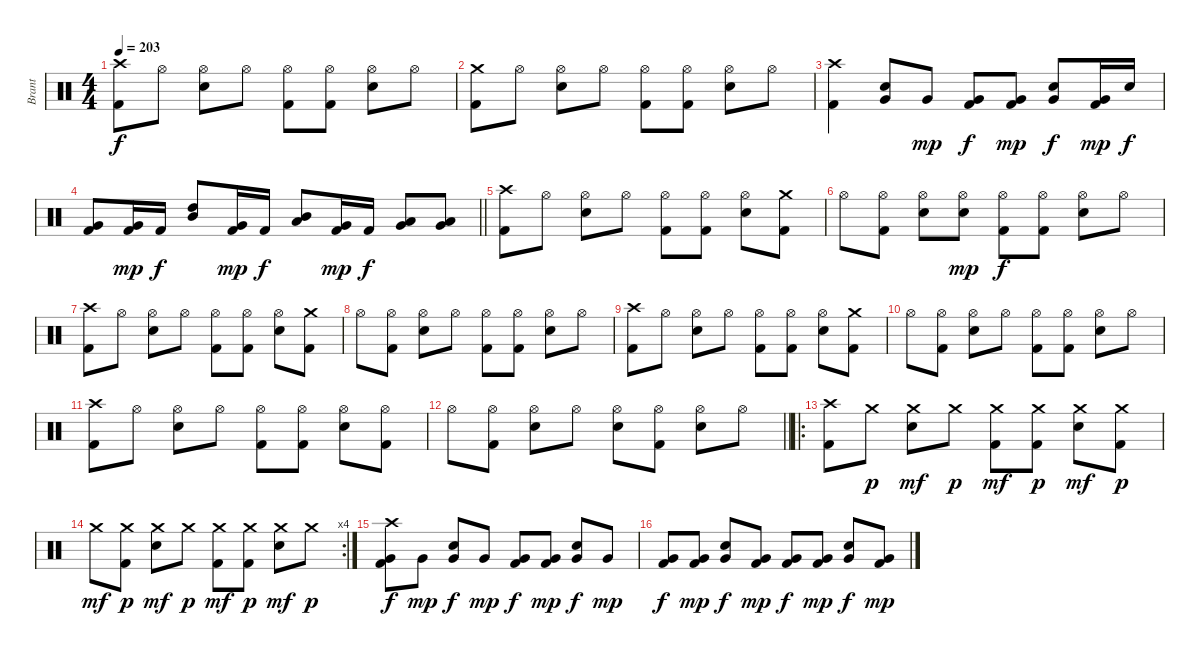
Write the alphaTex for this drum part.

\track ("Brant" "Brant") {instrument percussion}
\staff {score}
\articulation defaults
\ts (4 4)
\tempo 203
\clef neutral
\ks c
("Crash high (hit)" "Kick (hit) 2").8{dy f} "Hi-Hat (open)".8 ("Hi-Hat (open)" "Electric Snare (hit)").8 "Hi-Hat (open)".8 ("Hi-Hat (open)" "Kick (hit) 2").8 ("Hi-Hat (open)" "Kick (hit) 2").8 ("Hi-Hat (open)" "Electric Snare (hit)").8 "Hi-Hat (open)".8 |
("Crash medium (hit)" "Kick (hit) 2").8 "Hi-Hat (open)".8 ("Hi-Hat (open)" "Electric Snare (hit)").8 "Hi-Hat (open)".8 ("Hi-Hat (open)" "Kick (hit) 2").8 ("Hi-Hat (open)" "Kick (hit) 2").8 ("Hi-Hat (open)" "Electric Snare (hit)").8 "Hi-Hat (open)".8 |
("Crash high (hit)" "Kick (hit) 2").4 ("Electric Snare (hit)" "Very Low Tom (hit)").8 "Very Low Tom (hit)".8{dy mp} ("Very Low Tom (hit)" "Kick (hit) 2").8{dy f} ("Very Low Tom (hit)" "Kick (hit) 2").8{dy mp} ("Electric Snare (hit)" "Very Low Tom (hit)").8{dy f} ("Very Low Tom (hit)" "Kick (hit) 2").16{dy mp} "Electric Snare (hit)".16{dy f} |
\barLineRight lightlight
("Very Low Tom (hit)" "Kick (hit) 2").8 ("Very Low Tom (hit)" "Kick (hit) 2").16{dy mp} "Kick (hit) 2".16{dy f} ("High Tom (hit)" "Mid Tom (hit)").8 ("Very Low Tom (hit)" "Kick (hit) 2").16{dy mp} "Kick (hit) 2".16{dy f} ("Mid Tom (hit)" "Low Tom (hit)").8 ("Very Low Tom (hit)" "Kick (hit) 2").16{dy mp} "Kick (hit) 2".16{dy f} ("Low Tom (hit)" "Very Low Tom (hit)").8 ("Very Low Tom (hit)" "Low Floor Tom (hit)").8 |
\section ("" "")
("Crash high (hit)" "Kick (hit) 2").8 "Hi-Hat (open)".8 ("Hi-Hat (open)" "Electric Snare (hit)").8 "Hi-Hat (open)".8 ("Hi-Hat (open)" "Kick (hit) 2").8 ("Hi-Hat (open)" "Kick (hit) 2").8 ("Hi-Hat (open)" "Electric Snare (hit)").8 ("Crash medium (hit)" "Kick (hit) 2").8 |
"Hi-Hat (open)".8 ("Hi-Hat (open)" "Kick (hit) 2").8 ("Hi-Hat (open)" "Electric Snare (hit)").8 ("Hi-Hat (open)" "Electric Snare (hit)").8{dy mp} ("Hi-Hat (open)" "Kick (hit) 2").8{dy f} ("Hi-Hat (open)" "Kick (hit) 2").8 ("Hi-Hat (open)" "Electric Snare (hit)").8 "Hi-Hat (open)".8 |
("Crash high (hit)" "Kick (hit) 2").8 "Hi-Hat (open)".8 ("Hi-Hat (open)" "Electric Snare (hit)").8 "Hi-Hat (open)".8 ("Hi-Hat (open)" "Kick (hit) 2").8 ("Hi-Hat (open)" "Kick (hit) 2").8 ("Hi-Hat (open)" "Electric Snare (hit)").8 ("Crash medium (hit)" "Kick (hit) 2").8 |
"Hi-Hat (open)".8 ("Hi-Hat (open)" "Kick (hit) 2").8 ("Hi-Hat (open)" "Electric Snare (hit)").8 "Hi-Hat (open)".8 ("Hi-Hat (open)" "Kick (hit) 2").8 ("Hi-Hat (open)" "Kick (hit) 2").8 ("Hi-Hat (open)" "Electric Snare (hit)").8 "Hi-Hat (open)".8 |
("Crash high (hit)" "Kick (hit) 2").8 "Hi-Hat (open)".8 ("Hi-Hat (open)" "Electric Snare (hit)").8 "Hi-Hat (open)".8 ("Hi-Hat (open)" "Kick (hit) 2").8 ("Hi-Hat (open)" "Kick (hit) 2").8 ("Hi-Hat (open)" "Electric Snare (hit)").8 ("Crash medium (hit)" "Kick (hit) 2").8 |
"Hi-Hat (open)".8 ("Hi-Hat (open)" "Kick (hit) 2").8 ("Hi-Hat (open)" "Electric Snare (hit)").8 "Hi-Hat (open)".8 ("Hi-Hat (open)" "Kick (hit) 2").8 ("Hi-Hat (open)" "Kick (hit) 2").8 ("Hi-Hat (open)" "Electric Snare (hit)").8 "Hi-Hat (open)".8 |
("Crash high (hit)" "Kick (hit) 2").8 "Hi-Hat (open)".8 ("Hi-Hat (open)" "Electric Snare (hit)").8 "Hi-Hat (open)".8 ("Hi-Hat (open)" "Kick (hit) 2").8 ("Hi-Hat (open)" "Kick (hit) 2").8 ("Hi-Hat (open)" "Electric Snare (hit)").8 ("Hi-Hat (open)" "Kick (hit) 2").8 |
\barLineRight lightlight "Hi-Hat (open)".8
("Hi-Hat (open)" "Kick (hit) 2").8 ("Hi-Hat (open)" "Electric Snare (hit)").8 "Hi-Hat (open)".8 ("Hi-Hat (open)" "Electric Snare (hit)").8 ("Hi-Hat (open)" "Kick (hit) 2").8 ("Hi-Hat (open)" "Electric Snare (hit)").8 "Hi-Hat (open)".8 |
\ro
\section ("" "")
("Crash high (hit)" "Kick (hit) 2").8 "Crash medium (hit)".8{dy p} ("Crash medium (hit)" "Electric Snare (hit)").8{dy mf} "Crash medium (hit)".8{dy p} ("Crash medium (hit)" "Kick (hit) 2").8{dy mf} ("Crash medium (hit)" "Kick (hit) 2").8{dy p} ("Crash medium (hit)" "Electric Snare (hit)").8{dy mf} ("Crash medium (hit)" "Kick (hit) 2").8{dy p} |
\rc 4 "Crash medium (hit)".8{dy mf}
("Crash medium (hit)" "Kick (hit) 2").8{dy p} ("Crash medium (hit)" "Electric Snare (hit)").8{dy mf} "Crash medium (hit)".8{dy p} ("Crash medium (hit)" "Kick (hit) 2").8{dy mf} ("Crash medium (hit)" "Kick (hit) 2").8{dy p} ("Crash medium (hit)" "Electric Snare (hit)").8{dy mf} "Crash medium (hit)".8{dy p} |
("Crash high (hit)" "Very Low Tom (hit)" "Kick (hit) 2").8{dy f} "Very Low Tom (hit)".8{dy mp} ("Electric Snare (hit)" "Very Low Tom (hit)").8{dy f} "Very Low Tom (hit)".8{dy mp} ("Very Low Tom (hit)" "Kick (hit) 2").8{dy f} ("Very Low Tom (hit)" "Kick (hit) 2").8{dy mp} ("Electric Snare (hit)" "Very Low Tom (hit)").8{dy f} "Very Low Tom (hit)".8{dy mp} |
("Very Low Tom (hit)" "Kick (hit) 2").8{dy f} ("Very Low Tom (hit)" "Kick (hit) 2").8{dy mp} ("Electric Snare (hit)" "Very Low Tom (hit)").8{dy f} ("Very Low Tom (hit)" "Kick (hit) 2").8{dy mp} ("Very Low Tom (hit)" "Kick (hit) 2").8{dy f} ("Very Low Tom (hit)" "Kick (hit) 2").8{dy mp} ("Electric Snare (hit)" "Very Low Tom (hit)").8{dy f} ("Very Low Tom (hit)" "Kick (hit) 2").8{dy mp}
